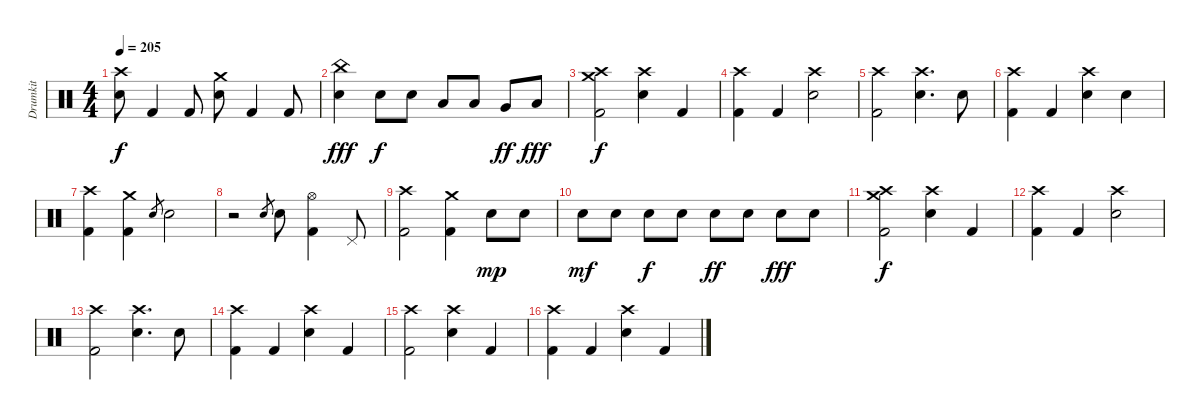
\track ("Drumkit" "Drumkit") {instrument percussion}
\staff {score}
\articulation defaults
\ts (4 4)
\tempo 205
\clef neutral
\ks c
("Crash high (hit)" "Electric Snare (hit)").8{dy f} "Kick (hit) 2".4 "Kick (hit) 2".8 ("Crash medium (hit)" "Electric Snare (hit)").8 "Kick (hit) 2".4 "Kick (hit) 2".8 |
("China (hit)" "Electric Snare (hit)").4{dy fff} "Electric Snare (hit)".8{dy f} "Electric Snare (hit)".8 "Low Tom (hit)".8 "Low Tom (hit)".8 "Very Low Tom (hit)".8{dy ff} "Low Floor Tom (hit)".8{dy fff} |
("Crash high (hit)" "Crash medium (hit)" "Kick (hit) 2").2{dy f} ("Crash high (hit)" "Electric Snare (hit)").4 "Kick (hit) 2".4 |
("Crash high (hit)" "Kick (hit) 2").4 "Kick (hit) 2".4 ("Crash high (hit)" "Electric Snare (hit)").2 |
("Crash high (hit)" "Kick (hit) 2").2 ("Crash high (hit)" "Electric Snare (hit)").4{d} "Electric Snare (hit)".8 |
("Crash high (hit)" "Kick (hit) 2").4 "Kick (hit) 2".4 ("Crash high (hit)" "Electric Snare (hit)").4 "Electric Snare (hit)".4 |
("Crash high (hit)" "Kick (hit) 2").4 ("Crash medium (hit)" "Kick (hit) 2").4 "Electric Snare (hit)".8{gr} "Electric Snare (hit)".2 |
r.2 "Electric Snare (hit)".8{gr} "Electric Snare (hit)".8 ("Hi-Hat (open)" "Kick (hit) 2").4 "Pedal Hi-Hat (hit)".8 |
("Crash high (hit)" "Kick (hit) 2").2 ("Crash medium (hit)" "Kick (hit) 2").4 "Electric Snare (hit)".8{dy mp} "Electric Snare (hit)".8 |
"Electric Snare (hit)".8{dy mf} "Electric Snare (hit)".8 "Electric Snare (hit)".8{dy f} "Electric Snare (hit)".8 "Electric Snare (hit)".8{dy ff} "Electric Snare (hit)".8 "Electric Snare (hit)".8{dy fff} "Electric Snare (hit)".8 |
("Crash high (hit)" "Crash medium (hit)" "Kick (hit) 2").2{dy f} ("Crash high (hit)" "Electric Snare (hit)").4 "Kick (hit) 2".4 |
("Crash high (hit)" "Kick (hit) 2").4 "Kick (hit) 2".4 ("Crash high (hit)" "Electric Snare (hit)").2 |
("Crash high (hit)" "Kick (hit) 2").2 ("Crash high (hit)" "Electric Snare (hit)").4{d} "Electric Snare (hit)".8 |
("Crash high (hit)" "Kick (hit) 2").4 "Kick (hit) 2".4 ("Crash high (hit)" "Electric Snare (hit)").4 "Kick (hit) 2".4 |
("Crash high (hit)" "Kick (hit) 2").2 ("Crash high (hit)" "Electric Snare (hit)").4 "Kick (hit) 2".4 |
("Crash high (hit)" "Kick (hit) 2").4 "Kick (hit) 2".4 ("Crash high (hit)" "Electric Snare (hit)").4 "Kick (hit) 2".4
